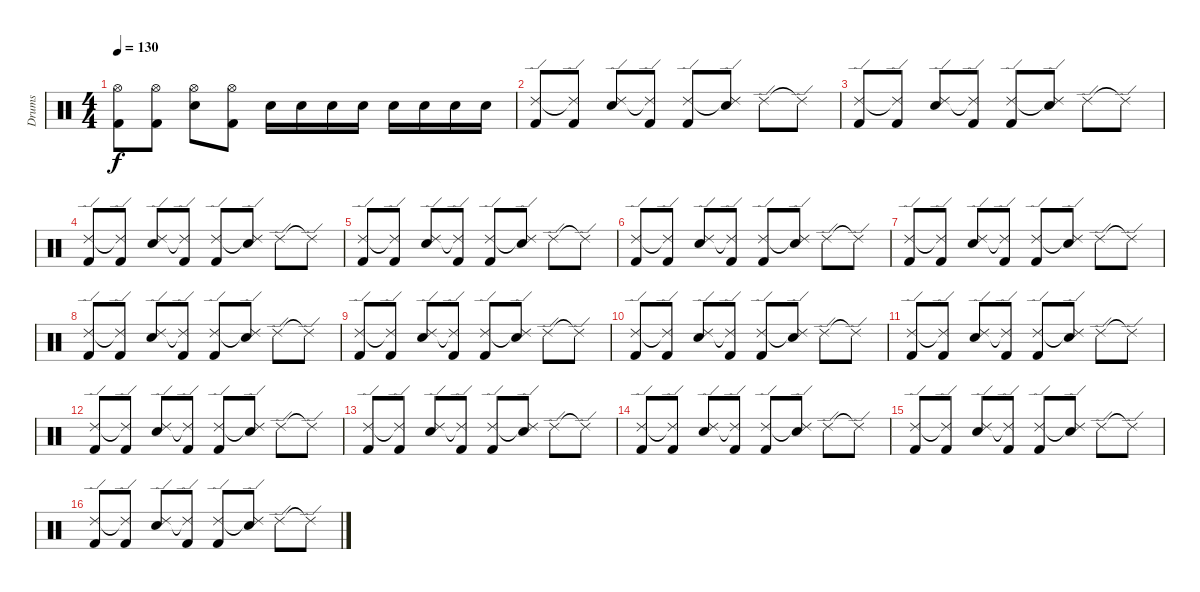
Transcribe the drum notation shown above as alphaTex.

\track ("Drums" "Drums") {instrument percussion}
\staff {score}
\articulation defaults
\ts (4 4)
\tempo 130
\clef neutral
\ks c
("Hi-Hat (open)" "Kick (hit) 2").8{dy f} ("Hi-Hat (open)" "Kick (hit) 2").8 ("Hi-Hat (open)" "Snare (hit) 2").8 ("Hi-Hat (open)" "Kick (hit) 2").8 "Snare (hit) 2".16 "Snare (hit) 2".16 "Snare (hit) 2".16 "Snare (hit) 2".16 "Snare (hit) 2".16 "Snare (hit) 2".16 "Snare (hit) 2".16 "Snare (hit) 2".16 |
("Ride (edge) 2" "Kick (hit) 2").8 ("Ride (edge) 2"{t} "Kick (hit) 2").8 ("Ride (edge) 2" "Snare (hit) 2").8 ("Ride (edge) 2"{t} "Kick (hit) 2").8 ("Ride (edge) 2" "Kick (hit) 2").8 ("Ride (edge) 2"{t} "Snare (hit) 2").8 "Ride (edge) 2".8 "Ride (edge) 2"{t}.8 |
("Ride (edge) 2" "Kick (hit) 2").8 ("Ride (edge) 2"{t} "Kick (hit) 2").8 ("Ride (edge) 2" "Snare (hit) 2").8 ("Ride (edge) 2"{t} "Kick (hit) 2").8 ("Ride (edge) 2" "Kick (hit) 2").8 ("Ride (edge) 2"{t} "Snare (hit) 2").8 "Ride (edge) 2".8 "Ride (edge) 2"{t}.8 |
("Ride (edge) 2" "Kick (hit) 2").8 ("Ride (edge) 2"{t} "Kick (hit) 2").8 ("Ride (edge) 2" "Snare (hit) 2").8 ("Ride (edge) 2"{t} "Kick (hit) 2").8 ("Ride (edge) 2" "Kick (hit) 2").8 ("Ride (edge) 2"{t} "Snare (hit) 2").8 "Ride (edge) 2".8 "Ride (edge) 2"{t}.8 |
("Ride (edge) 2" "Kick (hit) 2").8 ("Ride (edge) 2"{t} "Kick (hit) 2").8 ("Ride (edge) 2" "Snare (hit) 2").8 ("Ride (edge) 2"{t} "Kick (hit) 2").8 ("Ride (edge) 2" "Kick (hit) 2").8 ("Ride (edge) 2"{t} "Snare (hit) 2").8 "Ride (edge) 2".8 "Ride (edge) 2"{t}.8 |
("Ride (edge) 2" "Kick (hit) 2").8 ("Ride (edge) 2"{t} "Kick (hit) 2").8 ("Ride (edge) 2" "Snare (hit) 2").8 ("Ride (edge) 2"{t} "Kick (hit) 2").8 ("Ride (edge) 2" "Kick (hit) 2").8 ("Ride (edge) 2"{t} "Snare (hit) 2").8 "Ride (edge) 2".8 "Ride (edge) 2"{t}.8 |
("Ride (edge) 2" "Kick (hit) 2").8 ("Ride (edge) 2"{t} "Kick (hit) 2").8 ("Ride (edge) 2" "Snare (hit) 2").8 ("Ride (edge) 2"{t} "Kick (hit) 2").8 ("Ride (edge) 2" "Kick (hit) 2").8 ("Ride (edge) 2"{t} "Snare (hit) 2").8 "Ride (edge) 2".8 "Ride (edge) 2"{t}.8 |
("Ride (edge) 2" "Kick (hit) 2").8 ("Ride (edge) 2"{t} "Kick (hit) 2").8 ("Ride (edge) 2" "Snare (hit) 2").8 ("Ride (edge) 2"{t} "Kick (hit) 2").8 ("Ride (edge) 2" "Kick (hit) 2").8 ("Ride (edge) 2"{t} "Snare (hit) 2").8 "Ride (edge) 2".8 "Ride (edge) 2"{t}.8 |
("Ride (edge) 2" "Kick (hit) 2").8 ("Ride (edge) 2"{t} "Kick (hit) 2").8 ("Ride (edge) 2" "Snare (hit) 2").8 ("Ride (edge) 2"{t} "Kick (hit) 2").8 ("Ride (edge) 2" "Kick (hit) 2").8 ("Ride (edge) 2"{t} "Snare (hit) 2").8 "Ride (edge) 2".8 "Ride (edge) 2"{t}.8 |
("Ride (edge) 2" "Kick (hit) 2").8 ("Ride (edge) 2"{t} "Kick (hit) 2").8 ("Ride (edge) 2" "Snare (hit) 2").8 ("Ride (edge) 2"{t} "Kick (hit) 2").8 ("Ride (edge) 2" "Kick (hit) 2").8 ("Ride (edge) 2"{t} "Snare (hit) 2").8 "Ride (edge) 2".8 "Ride (edge) 2"{t}.8 |
("Ride (edge) 2" "Kick (hit) 2").8 ("Ride (edge) 2"{t} "Kick (hit) 2").8 ("Ride (edge) 2" "Snare (hit) 2").8 ("Ride (edge) 2"{t} "Kick (hit) 2").8 ("Ride (edge) 2" "Kick (hit) 2").8 ("Ride (edge) 2"{t} "Snare (hit) 2").8 "Ride (edge) 2".8 "Ride (edge) 2"{t}.8 |
("Ride (edge) 2" "Kick (hit) 2").8 ("Ride (edge) 2"{t} "Kick (hit) 2").8 ("Ride (edge) 2" "Snare (hit) 2").8 ("Ride (edge) 2"{t} "Kick (hit) 2").8 ("Ride (edge) 2" "Kick (hit) 2").8 ("Ride (edge) 2"{t} "Snare (hit) 2").8 "Ride (edge) 2".8 "Ride (edge) 2"{t}.8 |
("Ride (edge) 2" "Kick (hit) 2").8 ("Ride (edge) 2"{t} "Kick (hit) 2").8 ("Ride (edge) 2" "Snare (hit) 2").8 ("Ride (edge) 2"{t} "Kick (hit) 2").8 ("Ride (edge) 2" "Kick (hit) 2").8 ("Ride (edge) 2"{t} "Snare (hit) 2").8 "Ride (edge) 2".8 "Ride (edge) 2"{t}.8 |
("Ride (edge) 2" "Kick (hit) 2").8 ("Ride (edge) 2"{t} "Kick (hit) 2").8 ("Ride (edge) 2" "Snare (hit) 2").8 ("Ride (edge) 2"{t} "Kick (hit) 2").8 ("Ride (edge) 2" "Kick (hit) 2").8 ("Ride (edge) 2"{t} "Snare (hit) 2").8 "Ride (edge) 2".8 "Ride (edge) 2"{t}.8 |
("Ride (edge) 2" "Kick (hit) 2").8 ("Ride (edge) 2"{t} "Kick (hit) 2").8 ("Ride (edge) 2" "Snare (hit) 2").8 ("Ride (edge) 2"{t} "Kick (hit) 2").8 ("Ride (edge) 2" "Kick (hit) 2").8 ("Ride (edge) 2"{t} "Snare (hit) 2").8 "Ride (edge) 2".8 "Ride (edge) 2"{t}.8 |
("Ride (edge) 2" "Kick (hit) 2").8 ("Ride (edge) 2"{t} "Kick (hit) 2").8 ("Ride (edge) 2" "Snare (hit) 2").8 ("Ride (edge) 2"{t} "Kick (hit) 2").8 ("Ride (edge) 2" "Kick (hit) 2").8 ("Ride (edge) 2"{t} "Snare (hit) 2").8 "Ride (edge) 2".8 "Ride (edge) 2"{t}.8
